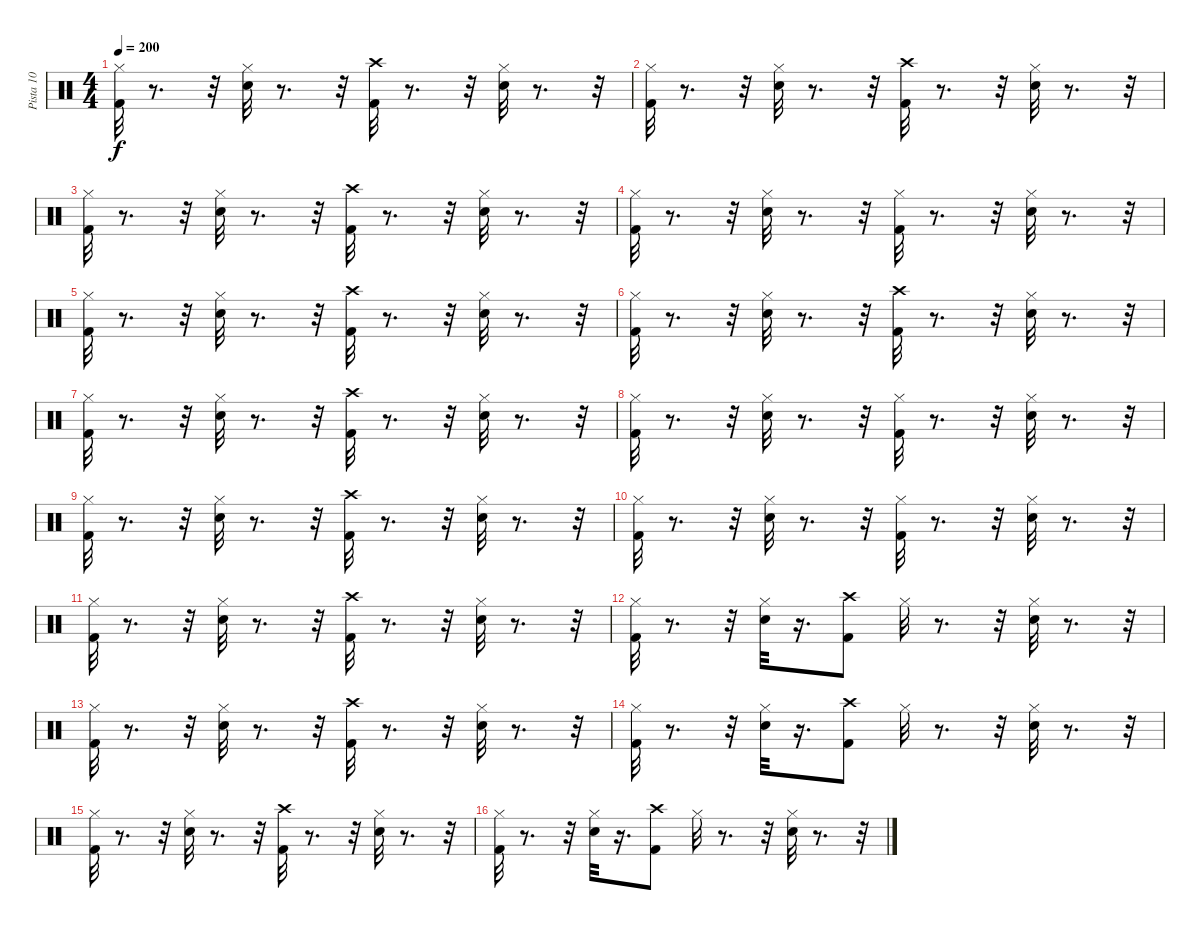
\track ("Pista 10" "Pista 10") {instrument percussion}
\staff {score}
\articulation defaults
\ts (4 4)
\tempo 200
\clef neutral
\ks c
("Kick (hit) 2" "Hi-Hat (closed)").32{dy f} r.8{d} r.32 ("Snare (hit) 2" "Hi-Hat (closed)").32 r.8{d} r.32 ("Crash high (hit)" "Kick (hit) 2").32 r.8{d} r.32 ("Snare (hit) 2" "Hi-Hat (closed)").32 r.8{d} r.32 |
("Kick (hit) 2" "Hi-Hat (closed)").32 r.8{d} r.32 ("Snare (hit) 2" "Hi-Hat (closed)").32 r.8{d} r.32 ("Crash high (hit)" "Kick (hit) 2").32 r.8{d} r.32 ("Snare (hit) 2" "Hi-Hat (closed)").32 r.8{d} r.32 |
("Kick (hit) 2" "Hi-Hat (closed)").32 r.8{d} r.32 ("Snare (hit) 2" "Hi-Hat (closed)").32 r.8{d} r.32 ("Crash high (hit)" "Kick (hit) 2").32 r.8{d} r.32 ("Snare (hit) 2" "Hi-Hat (closed)").32 r.8{d} r.32 |
("Kick (hit) 2" "Hi-Hat (closed)").32 r.8{d} r.32 ("Snare (hit) 2" "Hi-Hat (closed)").32 r.8{d} r.32 ("Kick (hit) 2" "Hi-Hat (closed)").32 r.8{d} r.32 ("Snare (hit) 2" "Hi-Hat (closed)").32 r.8{d} r.32 |
("Kick (hit) 2" "Hi-Hat (closed)").32 r.8{d} r.32 ("Snare (hit) 2" "Hi-Hat (closed)").32 r.8{d} r.32 ("Crash high (hit)" "Kick (hit) 2").32 r.8{d} r.32 ("Snare (hit) 2" "Hi-Hat (closed)").32 r.8{d} r.32 |
("Kick (hit) 2" "Hi-Hat (closed)").32 r.8{d} r.32 ("Snare (hit) 2" "Hi-Hat (closed)").32 r.8{d} r.32 ("Crash high (hit)" "Kick (hit) 2").32 r.8{d} r.32 ("Snare (hit) 2" "Hi-Hat (closed)").32 r.8{d} r.32 |
("Kick (hit) 2" "Hi-Hat (closed)").32 r.8{d} r.32 ("Snare (hit) 2" "Hi-Hat (closed)").32 r.8{d} r.32 ("Crash high (hit)" "Kick (hit) 2").32 r.8{d} r.32 ("Snare (hit) 2" "Hi-Hat (closed)").32 r.8{d} r.32 |
("Kick (hit) 2" "Hi-Hat (closed)").32 r.8{d} r.32 ("Snare (hit) 2" "Hi-Hat (closed)").32 r.8{d} r.32 ("Kick (hit) 2" "Hi-Hat (closed)").32 r.8{d} r.32 ("Snare (hit) 2" "Hi-Hat (closed)").32 r.8{d} r.32 |
("Kick (hit) 2" "Hi-Hat (closed)").32 r.8{d} r.32 ("Snare (hit) 2" "Hi-Hat (closed)").32 r.8{d} r.32 ("Crash high (hit)" "Kick (hit) 2").32 r.8{d} r.32 ("Snare (hit) 2" "Hi-Hat (closed)").32 r.8{d} r.32 |
("Kick (hit) 2" "Hi-Hat (closed)").32 r.8{d} r.32 ("Snare (hit) 2" "Hi-Hat (closed)").32 r.8{d} r.32 ("Kick (hit) 2" "Hi-Hat (closed)").32 r.8{d} r.32 ("Snare (hit) 2" "Hi-Hat (closed)").32 r.8{d} r.32 |
("Kick (hit) 2" "Hi-Hat (closed)").32 r.8{d} r.32 ("Snare (hit) 2" "Hi-Hat (closed)").32 r.8{d} r.32 ("Kick (hit) 2" "Crash high (hit)").32 r.8{d} r.32 ("Snare (hit) 2" "Hi-Hat (closed)").32 r.8{d} r.32 |
("Kick (hit) 2" "Hi-Hat (closed)").32 r.8{d} r.32 ("Snare (hit) 2" "Hi-Hat (closed)").32 r.16{d} ("Crash high (hit)" "Kick (hit) 2").8 "Hi-Hat (closed)".32 r.8{d} r.32 ("Snare (hit) 2" "Hi-Hat (closed)").32 r.8{d} r.32 |
("Hi-Hat (closed)" "Kick (hit) 2").32 r.8{d} r.32 ("Snare (hit) 2" "Hi-Hat (closed)").32 r.8{d} r.32 ("Kick (hit) 2" "Crash high (hit)").32 r.8{d} r.32 ("Snare (hit) 2" "Hi-Hat (closed)").32 r.8{d} r.32 |
("Kick (hit) 2" "Hi-Hat (closed)").32 r.8{d} r.32 ("Snare (hit) 2" "Hi-Hat (closed)").32 r.16{d} ("Crash high (hit)" "Kick (hit) 2").8 "Hi-Hat (closed)".32 r.8{d} r.32 ("Snare (hit) 2" "Hi-Hat (closed)").32 r.8{d} r.32 |
("Hi-Hat (closed)" "Kick (hit) 2").32 r.8{d} r.32 ("Snare (hit) 2" "Hi-Hat (closed)").32 r.8{d} r.32 ("Kick (hit) 2" "Crash high (hit)").32 r.8{d} r.32 ("Snare (hit) 2" "Hi-Hat (closed)").32 r.8{d} r.32 |
("Kick (hit) 2" "Hi-Hat (closed)").32 r.8{d} r.32 ("Snare (hit) 2" "Hi-Hat (closed)").32 r.16{d} ("Crash high (hit)" "Kick (hit) 2").8 "Hi-Hat (closed)".32 r.8{d} r.32 ("Snare (hit) 2" "Hi-Hat (closed)").32 r.8{d} r.32
